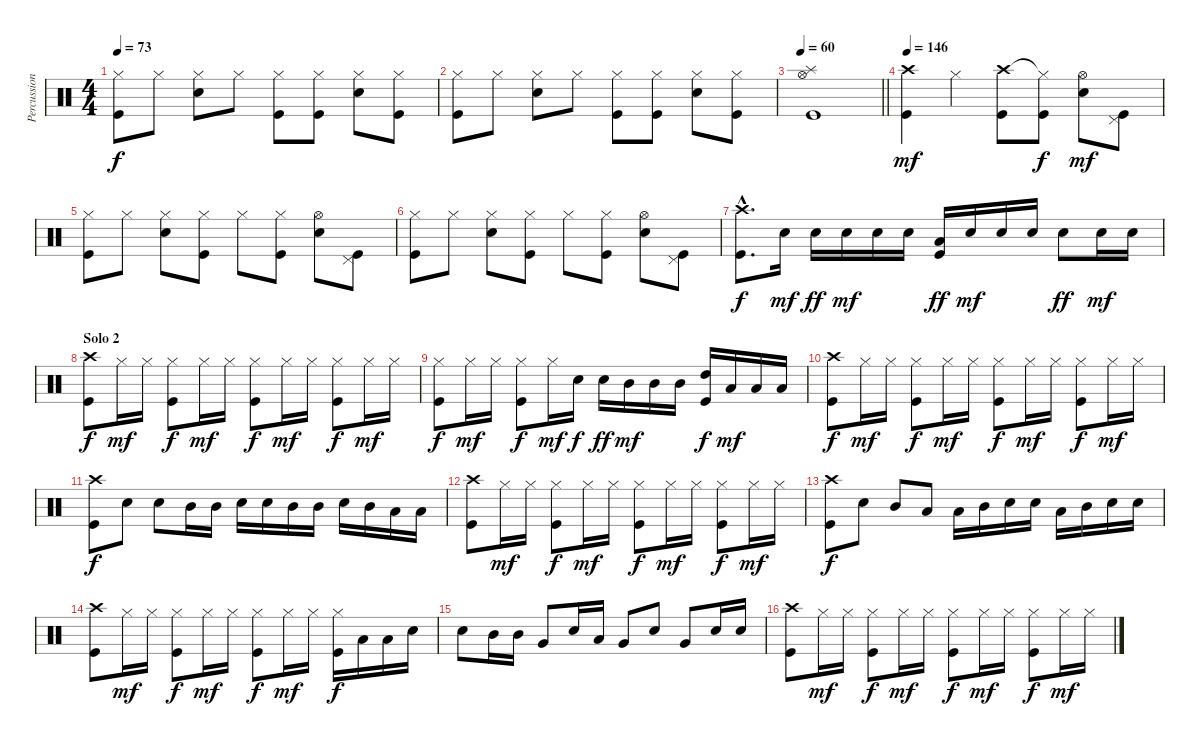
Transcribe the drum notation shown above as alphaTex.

\track ("Percussion" "Percussion") {instrument percussion}
\staff {score}
\articulation defaults
\ts (4 4)
\tempo 73
\clef neutral
\ks c
("Hi-Hat (closed)" "Kick (hit)").8{dy f} "Hi-Hat (closed)".8 ("Hi-Hat (closed)" "Snare (hit) 2").8 "Hi-Hat (closed)".8 ("Hi-Hat (closed)" "Kick (hit)").8 ("Hi-Hat (closed)" "Kick (hit)").8 ("Hi-Hat (closed)" "Snare (hit) 2").8 ("Hi-Hat (closed)" "Kick (hit)").8 |
("Hi-Hat (closed)" "Kick (hit)").8 "Hi-Hat (closed)".8 ("Hi-Hat (closed)" "Snare (hit) 2").8 "Hi-Hat (closed)".8 ("Hi-Hat (closed)" "Kick (hit)").8 ("Hi-Hat (closed)" "Kick (hit)").8 ("Hi-Hat (closed)" "Snare (hit) 2").8 ("Hi-Hat (closed)" "Kick (hit)").8 |
\tempo 60
\barLineRight lightlight
("Splash (hit)" "Hi-Hat (open)" "Kick (hit)").1 |
\tempo 146
("Crash high (hit)" "Kick (hit)").4{dy mf} "Hi-Hat (closed)".4 ("Crash high (hit)" "Kick (hit)").8 ("Hi-Hat (closed)"{t} "Kick (hit)").8{dy f} ("Hi-Hat (open)" "Snare (hit) 2").8{dy mf} ("Pedal Hi-Hat (hit)" "Kick (hit)").8 |
("Hi-Hat (closed)" "Kick (hit)").8 "Hi-Hat (closed)".8 ("Hi-Hat (closed)" "Snare (hit) 2").8 ("Hi-Hat (closed)" "Kick (hit)").8 "Hi-Hat (closed)".8 ("Hi-Hat (closed)" "Kick (hit)").8 ("Hi-Hat (open)" "Snare (hit) 2").8 ("Pedal Hi-Hat (hit)" "Kick (hit)").8 |
("Hi-Hat (closed)" "Kick (hit)").8 "Hi-Hat (closed)".8 ("Hi-Hat (closed)" "Snare (hit) 2").8 ("Hi-Hat (closed)" "Kick (hit)").8 "Hi-Hat (closed)".8 ("Hi-Hat (closed)" "Kick (hit)").8 ("Hi-Hat (open)" "Snare (hit) 2").8 ("Pedal Hi-Hat (hit)" "Kick (hit)").8 |
("Crash high (hit)"{hac} "Kick (hit)"{hac}).8{d dy f} "Snare (hit) 2".16{dy mf} "Snare (hit) 2".16{dy ff} "Snare (hit) 2".16{dy mf} "Snare (hit) 2".16 "Snare (hit) 2".16 ("Low Tom (hit)" "Kick (hit)").16{dy ff} "Snare (hit) 2".16{dy mf} "Snare (hit) 2".16 "Snare (hit) 2".16 "Snare (hit) 2".8{dy ff} "Snare (hit) 2".16{dy mf} "Snare (hit) 2".16 |
\section ("" "Solo 2")
("Crash high (hit)" "Kick (hit)").8{dy f} "Hi-Hat (closed)".16{dy mf} "Hi-Hat (closed)".16 ("Hi-Hat (closed)" "Kick (hit)").8{dy f} "Hi-Hat (closed)".16{dy mf} "Hi-Hat (closed)".16 ("Hi-Hat (closed)" "Kick (hit)").8{dy f} "Hi-Hat (closed)".16{dy mf} "Hi-Hat (closed)".16 ("Hi-Hat (closed)" "Kick (hit)").8{dy f} "Hi-Hat (closed)".16{dy mf} "Hi-Hat (closed)".16 |
("Hi-Hat (closed)" "Kick (hit)").8{dy f} "Hi-Hat (closed)".16{dy mf} "Hi-Hat (closed)".16 ("Hi-Hat (closed)" "Kick (hit)").8{dy f} "Hi-Hat (closed)".16{dy mf} "Snare (hit) 2".16{dy f} "Snare (hit) 2".16{dy ff} "Mid Tom (hit)".16{dy mf} "Mid Tom (hit)".16 "Mid Tom (hit)".16 ("High Tom (hit)" "Kick (hit)").16{dy f} "Low Tom (hit)".16{dy mf} "Low Tom (hit)".16 "Low Tom (hit)".16 |
("Crash high (hit)" "Kick (hit)").8{dy f} "Hi-Hat (closed)".16{dy mf} "Hi-Hat (closed)".16 ("Hi-Hat (closed)" "Kick (hit)").8{dy f} "Hi-Hat (closed)".16{dy mf} "Hi-Hat (closed)".16 ("Hi-Hat (closed)" "Kick (hit)").8{dy f} "Hi-Hat (closed)".16{dy mf} "Hi-Hat (closed)".16 ("Hi-Hat (closed)" "Kick (hit)").8{dy f} "Hi-Hat (closed)".16{dy mf} "Hi-Hat (closed)".16 |
("Crash high (hit)" "Kick (hit)").8{dy f} "Snare (hit) 2".8 "Snare (hit) 2".8 "Mid Tom (hit)".16 "Mid Tom (hit)".16 "Snare (hit) 2".16 "Snare (hit) 2".16 "Mid Tom (hit)".16 "Mid Tom (hit)".16 "Snare (hit) 2".16 "Mid Tom (hit)".16 "Low Tom (hit)".16 "Low Tom (hit)".16 |
("Crash high (hit)" "Kick (hit)").8 "Hi-Hat (closed)".16{dy mf} "Hi-Hat (closed)".16 ("Hi-Hat (closed)" "Kick (hit)").8{dy f} "Hi-Hat (closed)".16{dy mf} "Hi-Hat (closed)".16 ("Hi-Hat (closed)" "Kick (hit)").8{dy f} "Hi-Hat (closed)".16{dy mf} "Hi-Hat (closed)".16 ("Hi-Hat (closed)" "Kick (hit)").8{dy f} "Hi-Hat (closed)".16{dy mf} "Hi-Hat (closed)".16 |
("Crash high (hit)" "Kick (hit)").8{dy f} "Snare (hit) 2".8 "Mid Tom (hit)".8 "Low Tom (hit)".8 "Low Tom (hit)".16 "Mid Tom (hit)".16 "Snare (hit) 2".16 "Snare (hit) 2".16 "Low Tom (hit)".16 "Mid Tom (hit)".16 "Snare (hit) 2".16 "Snare (hit) 2".16 |
("Crash high (hit)" "Kick (hit)").8 "Hi-Hat (closed)".16{dy mf} "Hi-Hat (closed)".16 ("Hi-Hat (closed)" "Kick (hit)").8{dy f} "Hi-Hat (closed)".16{dy mf} "Hi-Hat (closed)".16 ("Hi-Hat (closed)" "Kick (hit)").8{dy f} "Hi-Hat (closed)".16{dy mf} "Hi-Hat (closed)".16 ("Hi-Hat (closed)" "Kick (hit)").16{dy f} "Low Tom (hit)".16 "Low Tom (hit)".16 "Snare (hit) 2".16 |
"Snare (hit) 2".8 "Mid Tom (hit)".16 "Mid Tom (hit)".16 "Very Low Tom (hit)".8 "Snare (hit) 2".16 "Low Tom (hit)".16 "Very Low Tom (hit)".8 "Snare (hit) 2".8 "Very Low Tom (hit)".8 "Snare (hit) 2".16 "Snare (hit) 2".16 |
("Crash high (hit)" "Kick (hit)").8 "Hi-Hat (closed)".16{dy mf} "Hi-Hat (closed)".16 ("Hi-Hat (closed)" "Kick (hit)").8{dy f} "Hi-Hat (closed)".16{dy mf} "Hi-Hat (closed)".16 ("Hi-Hat (closed)" "Kick (hit)").8{dy f} "Hi-Hat (closed)".16{dy mf} "Hi-Hat (closed)".16 ("Hi-Hat (closed)" "Kick (hit)").8{dy f} "Hi-Hat (closed)".16{dy mf} "Hi-Hat (closed)".16
